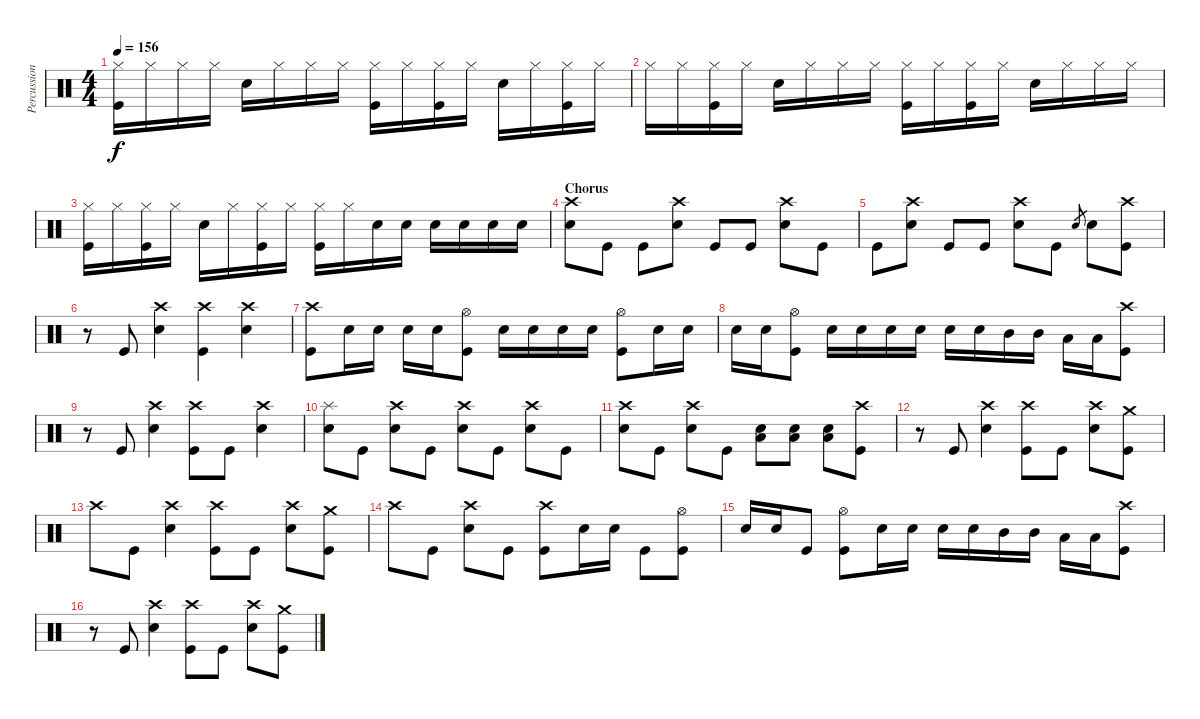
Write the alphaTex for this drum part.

\track ("Percussion" "Percussion") {instrument percussion}
\staff {score}
\articulation defaults
\ts (4 4)
\tempo 156
\clef neutral
\ks c
("Hi-Hat (closed)" "Kick (hit)").16{dy f} "Hi-Hat (closed)".16 "Hi-Hat (closed)".16 "Hi-Hat (closed)".16 "Snare (hit) 2".16 "Hi-Hat (closed)".16 "Hi-Hat (closed)".16 "Hi-Hat (closed)".16 ("Hi-Hat (closed)" "Kick (hit)").16 "Hi-Hat (closed)".16 ("Hi-Hat (closed)" "Kick (hit)").16 "Hi-Hat (closed)".16 "Snare (hit) 2".16 "Hi-Hat (closed)".16 ("Hi-Hat (closed)" "Kick (hit)").16 "Hi-Hat (closed)".16 |
"Hi-Hat (closed)".16 "Hi-Hat (closed)".16 ("Hi-Hat (closed)" "Kick (hit)").16 "Hi-Hat (closed)".16 "Snare (hit) 2".16 "Hi-Hat (closed)".16 "Hi-Hat (closed)".16 "Hi-Hat (closed)".16 ("Hi-Hat (closed)" "Kick (hit)").16 "Hi-Hat (closed)".16 ("Hi-Hat (closed)" "Kick (hit)").16 "Hi-Hat (closed)".16 "Snare (hit) 2".16 "Hi-Hat (closed)".16 "Hi-Hat (closed)".16 "Hi-Hat (closed)".16 |
("Hi-Hat (closed)" "Kick (hit)").16 "Hi-Hat (closed)".16 ("Hi-Hat (closed)" "Kick (hit)").16 "Hi-Hat (closed)".16 "Snare (hit) 2".16 "Hi-Hat (closed)".16 ("Hi-Hat (closed)" "Kick (hit)").16 "Hi-Hat (closed)".16 ("Hi-Hat (closed)" "Kick (hit)").16 "Hi-Hat (closed)".16 "Snare (hit) 2".16 "Snare (hit) 2".16 "Snare (hit) 2".16 "Snare (hit) 2".16 "Snare (hit) 2".16 "Snare (hit) 2".16 |
\section ("" "Chorus")
("Crash high (hit)" "Snare (hit) 2").8 "Kick (hit)".8 "Kick (hit)".8 ("Crash high (hit)" "Snare (hit) 2").8 "Kick (hit)".8 "Kick (hit)".8 ("Crash high (hit)" "Snare (hit) 2").8 "Kick (hit)".8 |
"Kick (hit)".8 ("Crash high (hit)" "Snare (hit) 2").8 "Kick (hit)".8 "Kick (hit)".8 ("Crash high (hit)" "Snare (hit) 2").8 "Kick (hit)".8 "Snare (hit) 2".8{gr} "Snare (hit) 2".8 ("Crash high (hit)" "Kick (hit)").8 |
r.8 "Kick (hit)".8 ("Crash high (hit)" "Snare (hit) 2").4 ("Crash high (hit)" "Kick (hit)").4 ("Crash high (hit)" "Snare (hit) 2").4 |
("Crash high (hit)" "Kick (hit)").8 "Snare (hit) 2".16 "Snare (hit) 2".16 "Snare (hit) 2".16 "Snare (hit) 2".16 ("Hi-Hat (open)" "Kick (hit)").8 "Snare (hit) 2".16 "Snare (hit) 2".16 "Snare (hit) 2".16 "Snare (hit) 2".16 ("Hi-Hat (open)" "Kick (hit)").8 "Snare (hit) 2".16 "Snare (hit) 2".16 |
"Snare (hit) 2".16 "Snare (hit) 2".16 ("Hi-Hat (open)" "Kick (hit)").8 "Snare (hit) 2".16 "Snare (hit) 2".16 "Snare (hit) 2".16 "Snare (hit) 2".16 "Snare (hit) 2".16 "Snare (hit) 2".16 "Mid Tom (hit)".16 "Mid Tom (hit)".16 "Low Tom (hit)".16 "Low Tom (hit)".16 ("Crash high (hit)" "Kick (hit)").8 |
r.8 "Kick (hit)".8 ("Crash high (hit)" "Snare (hit) 2").4 ("Crash high (hit)" "Kick (hit)").8 "Kick (hit)".8 ("Crash high (hit)" "Snare (hit) 2").4 |
("Splash (hit)" "Snare (hit) 2").8 "Kick (hit)".8 ("Crash high (hit)" "Snare (hit) 2").8 "Kick (hit)".8 ("Crash high (hit)" "Snare (hit) 2").8 "Kick (hit)".8 ("Crash high (hit)" "Snare (hit) 2").8 "Kick (hit)".8 |
("Crash high (hit)" "Snare (hit) 2").8 "Kick (hit)".8 ("Crash high (hit)" "Snare (hit) 2").8 "Kick (hit)".8 ("Snare (hit) 2" "Low Tom (hit)").8 ("Snare (hit) 2" "Low Tom (hit)").8 ("Snare (hit) 2" "Low Tom (hit)").8 ("Crash high (hit)" "Kick (hit)").8 |
r.8 "Kick (hit)".8 ("Crash high (hit)" "Snare (hit) 2").4 ("Crash high (hit)" "Kick (hit)").8 "Kick (hit)".8 ("Crash high (hit)" "Snare (hit) 2").8 ("Crash medium (hit)" "Kick (hit)").8 |
"Crash high (hit)".8 "Kick (hit)".8 ("Crash high (hit)" "Snare (hit) 2").4 ("Crash high (hit)" "Kick (hit)").8 "Kick (hit)".8 ("Crash high (hit)" "Snare (hit) 2").8 ("Crash medium (hit)" "Kick (hit)").8 |
"Crash high (hit)".8 "Kick (hit)".8 ("Crash high (hit)" "Snare (hit) 2").8 "Kick (hit)".8 ("Crash high (hit)" "Kick (hit)").8 "Snare (hit) 2".16 "Snare (hit) 2".16 "Kick (hit)".8 ("Hi-Hat (open)" "Kick (hit)").8 |
"Snare (hit) 2".16 "Snare (hit) 2".16 "Kick (hit)".8 ("Hi-Hat (open)" "Kick (hit)").8 "Snare (hit) 2".16 "Snare (hit) 2".16 "Snare (hit) 2".16 "Snare (hit) 2".16 "Mid Tom (hit)".16 "Mid Tom (hit)".16 "Low Tom (hit)".16 "Low Tom (hit)".16 ("Crash high (hit)" "Kick (hit)").8 |
r.8 "Kick (hit)".8 ("Crash high (hit)" "Snare (hit) 2").4 ("Crash high (hit)" "Kick (hit)").8 "Kick (hit)".8 ("Crash high (hit)" "Snare (hit) 2").8 ("Crash medium (hit)" "Kick (hit)").8
